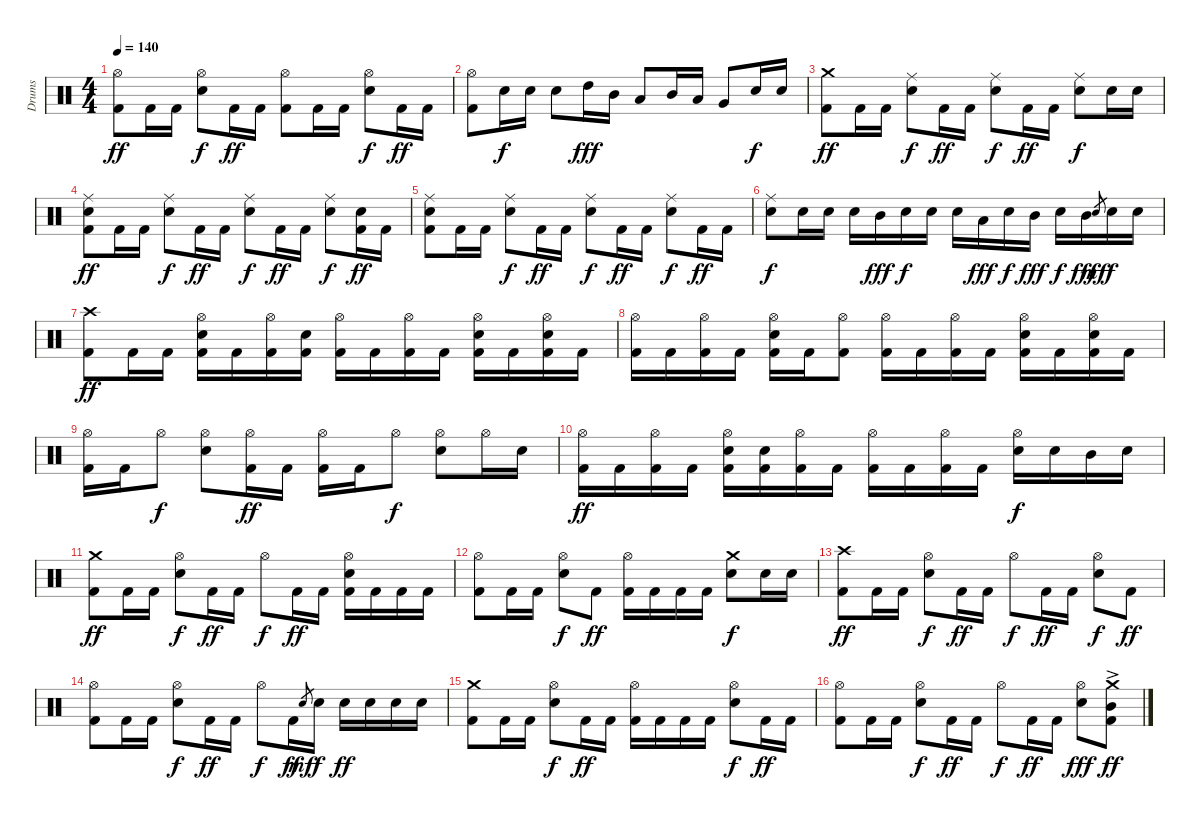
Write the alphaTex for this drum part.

\track ("Drums" "Drums") {instrument percussion}
\staff {score}
\articulation defaults
\ts (4 4)
\tempo 140
\clef neutral
\ks c
("Hi-Hat (open)" "Kick (hit) 2").8{dy ff} "Kick (hit) 2".16 "Kick (hit) 2".16 ("Hi-Hat (open)" "Snare (hit) 2").8{dy f} "Kick (hit) 2".16{dy ff} "Kick (hit) 2".16 ("Hi-Hat (open)" "Kick (hit) 2").8 "Kick (hit) 2".16 "Kick (hit) 2".16 ("Hi-Hat (open)" "Snare (hit) 2").8{dy f} "Kick (hit) 2".16{dy ff} "Kick (hit) 2".16 |
("Hi-Hat (open)" "Kick (hit) 2").8 "Snare (hit) 2".16{dy f} "Snare (hit) 2".16 "Snare (hit) 2".8 "High Tom (hit)".16{dy fff} "Mid Tom (hit)".16 "Low Tom (hit)".8 "Mid Tom (hit)".16 "Low Tom (hit)".16 "Very Low Tom (hit)".8 "Snare (hit) 2".16{dy f} "Snare (hit) 2".16 |
("Crash medium (hit)" "Kick (hit) 2").8{dy ff} "Kick (hit) 2".16 "Kick (hit) 2".16 ("Ride (middle)" "Snare (hit) 2").8{dy f} "Kick (hit) 2".16{dy ff} "Kick (hit) 2".16 ("Ride (middle)" "Snare (hit) 2").8{dy f} "Kick (hit) 2".16{dy ff} "Kick (hit) 2".16 ("Ride (middle)" "Snare (hit) 2").8{dy f} "Snare (hit) 2".16 "Snare (hit) 2".16 |
("Ride (middle)" "Snare (hit) 2" "Kick (hit) 2").8{dy ff} "Kick (hit) 2".16 "Kick (hit) 2".16 ("Ride (middle)" "Snare (hit) 2").8{dy f} "Kick (hit) 2".16{dy ff} "Kick (hit) 2".16 ("Ride (middle)" "Snare (hit) 2").8{dy f} "Kick (hit) 2".16{dy ff} "Kick (hit) 2".16 ("Ride (middle)" "Snare (hit) 2").8{dy f} ("Snare (hit) 2" "Kick (hit) 2").16{dy ff} "Kick (hit) 2".16 |
("Ride (middle)" "Snare (hit) 2" "Kick (hit) 2").8 "Kick (hit) 2".16 "Kick (hit) 2".16 ("Ride (middle)" "Snare (hit) 2").8{dy f} "Kick (hit) 2".16{dy ff} "Kick (hit) 2".16 ("Ride (middle)" "Snare (hit) 2").8{dy f} "Kick (hit) 2".16{dy ff} "Kick (hit) 2".16 ("Ride (middle)" "Snare (hit) 2").8{dy f} "Kick (hit) 2".16{dy ff} "Kick (hit) 2".16 |
("Ride (middle)" "Snare (hit) 2").8{dy f} "Snare (hit) 2".16 "Snare (hit) 2".16 "Snare (hit) 2".16 "Mid Tom (hit)".16{dy fff} "Snare (hit) 2".16{dy f} "Snare (hit) 2".16 "Snare (hit) 2".16 "Low Tom (hit)".16{dy fff} "Snare (hit) 2".16{dy f} "Mid Tom (hit)".16{dy fff} "Snare (hit) 2".16{dy f} "Mid Tom (hit)".16{dy fff} "Snare (hit) 2".8{gr dy mf} "Snare (hit) 2".16{dy f} "Snare (hit) 2".16 |
("Crash high (hit)" "Kick (hit) 2").8{dy ff} "Kick (hit) 2".16 "Kick (hit) 2".16 ("Hi-Hat (open)" "Snare (hit) 2" "Kick (hit) 2").16 "Kick (hit) 2".16 ("Hi-Hat (open)" "Kick (hit) 2").16 ("Snare (hit) 2" "Kick (hit) 2").16 ("Hi-Hat (open)" "Kick (hit) 2").16 "Kick (hit) 2".16 ("Hi-Hat (open)" "Kick (hit) 2").16 "Kick (hit) 2".16 ("Hi-Hat (open)" "Snare (hit) 2" "Kick (hit) 2").16 "Kick (hit) 2".16 ("Hi-Hat (open)" "Snare (hit) 2" "Kick (hit) 2").16 "Kick (hit) 2".16 |
("Hi-Hat (open)" "Kick (hit) 2").16 "Kick (hit) 2".16 ("Hi-Hat (open)" "Kick (hit) 2").16 "Kick (hit) 2".16 ("Hi-Hat (open)" "Snare (hit) 2" "Kick (hit) 2").16 "Kick (hit) 2".16 ("Hi-Hat (open)" "Kick (hit) 2").8 ("Hi-Hat (open)" "Kick (hit) 2").16 "Kick (hit) 2".16 ("Hi-Hat (open)" "Kick (hit) 2").16 "Kick (hit) 2".16 ("Hi-Hat (open)" "Snare (hit) 2" "Kick (hit) 2").16 "Kick (hit) 2".16 ("Hi-Hat (open)" "Snare (hit) 2" "Kick (hit) 2").16 "Kick (hit) 2".16 |
("Hi-Hat (open)" "Kick (hit) 2").16 "Kick (hit) 2".16 "Hi-Hat (open)".8{dy f} ("Hi-Hat (open)" "Snare (hit) 2").8 ("Hi-Hat (open)" "Kick (hit) 2").16{dy ff} "Kick (hit) 2".16 ("Hi-Hat (open)" "Kick (hit) 2").16 "Kick (hit) 2".16 "Hi-Hat (open)".8{dy f} ("Hi-Hat (open)" "Snare (hit) 2").8 "Hi-Hat (open)".16 "Snare (hit) 2".16 |
("Hi-Hat (open)" "Kick (hit) 2").16{dy ff} "Kick (hit) 2".16 ("Hi-Hat (open)" "Kick (hit) 2").16 "Kick (hit) 2".16 ("Hi-Hat (open)" "Snare (hit) 2" "Kick (hit) 2").16 ("Snare (hit) 2" "Kick (hit) 2").16 ("Hi-Hat (open)" "Kick (hit) 2").16 "Kick (hit) 2".16 ("Hi-Hat (open)" "Kick (hit) 2").16 "Kick (hit) 2".16 ("Hi-Hat (open)" "Kick (hit) 2").16 "Kick (hit) 2".16 ("Hi-Hat (open)" "Snare (hit) 2").16{dy f} "Snare (hit) 2".16 "Mid Tom (hit)".16 "Snare (hit) 2".16 |
("Crash medium (hit)" "Kick (hit) 2").8{dy ff} "Kick (hit) 2".16 "Kick (hit) 2".16 ("Hi-Hat (open)" "Snare (hit) 2").8{dy f} "Kick (hit) 2".16{dy ff} "Kick (hit) 2".16 "Hi-Hat (open)".8{dy f} "Kick (hit) 2".16{dy ff} "Kick (hit) 2".16 ("Hi-Hat (open)" "Snare (hit) 2" "Kick (hit) 2").16 "Kick (hit) 2".16 "Kick (hit) 2".16 "Kick (hit) 2".16 |
("Hi-Hat (open)" "Kick (hit) 2").8 "Kick (hit) 2".16 "Kick (hit) 2".16 ("Hi-Hat (open)" "Snare (hit) 2").8{dy f} "Kick (hit) 2".8{dy ff} ("Hi-Hat (open)" "Kick (hit) 2").16 "Kick (hit) 2".16 "Kick (hit) 2".16 "Kick (hit) 2".16 ("Crash medium (hit)" "Snare (hit) 2").8{dy f} "Snare (hit) 2".16 "Snare (hit) 2".16 |
("Crash high (hit)" "Kick (hit) 2").8{dy ff} "Kick (hit) 2".16 "Kick (hit) 2".16 ("Hi-Hat (open)" "Snare (hit) 2").8{dy f} "Kick (hit) 2".16{dy ff} "Kick (hit) 2".16 "Hi-Hat (open)".8{dy f} "Kick (hit) 2".16{dy ff} "Kick (hit) 2".16 ("Hi-Hat (open)" "Snare (hit) 2").8{dy f} "Kick (hit) 2".8{dy ff} |
("Hi-Hat (open)" "Kick (hit) 2").8 "Kick (hit) 2".16 "Kick (hit) 2".16 ("Hi-Hat (open)" "Snare (hit) 2").8{dy f} "Kick (hit) 2".16{dy ff} "Kick (hit) 2".16 "Hi-Hat (open)".8{dy f} "Kick (hit) 2".16{dy ff} "Snare (hit) 2".8{gr dy mf} "Snare (hit) 2".16{dy f} "Snare (hit) 2".16{dy ff} "Snare (hit) 2".16 "Snare (hit) 2".16 "Snare (hit) 2".16 |
("Crash medium (hit)" "Kick (hit) 2").8 "Kick (hit) 2".16 "Kick (hit) 2".16 ("Hi-Hat (open)" "Snare (hit) 2").8{dy f} "Kick (hit) 2".16{dy ff} "Kick (hit) 2".16 ("Hi-Hat (open)" "Kick (hit) 2").16 "Kick (hit) 2".16 "Kick (hit) 2".16 "Kick (hit) 2".16 ("Hi-Hat (open)" "Snare (hit) 2").8{dy f} "Kick (hit) 2".16{dy ff} "Kick (hit) 2".16 |
("Hi-Hat (open)" "Kick (hit) 2").8 "Kick (hit) 2".16 "Kick (hit) 2".16 ("Hi-Hat (open)" "Snare (hit) 2").8{dy f} "Kick (hit) 2".16{dy ff} "Kick (hit) 2".16 "Hi-Hat (open)".8{dy f} "Kick (hit) 2".16{dy ff} "Kick (hit) 2".16 ("Hi-Hat (open)" "Snare (hit) 2").8{dy fff} ("Crash medium (hit)"{ac} "Mid Tom (hit)"{ac} "Kick (hit) 2").8{dy ff}
